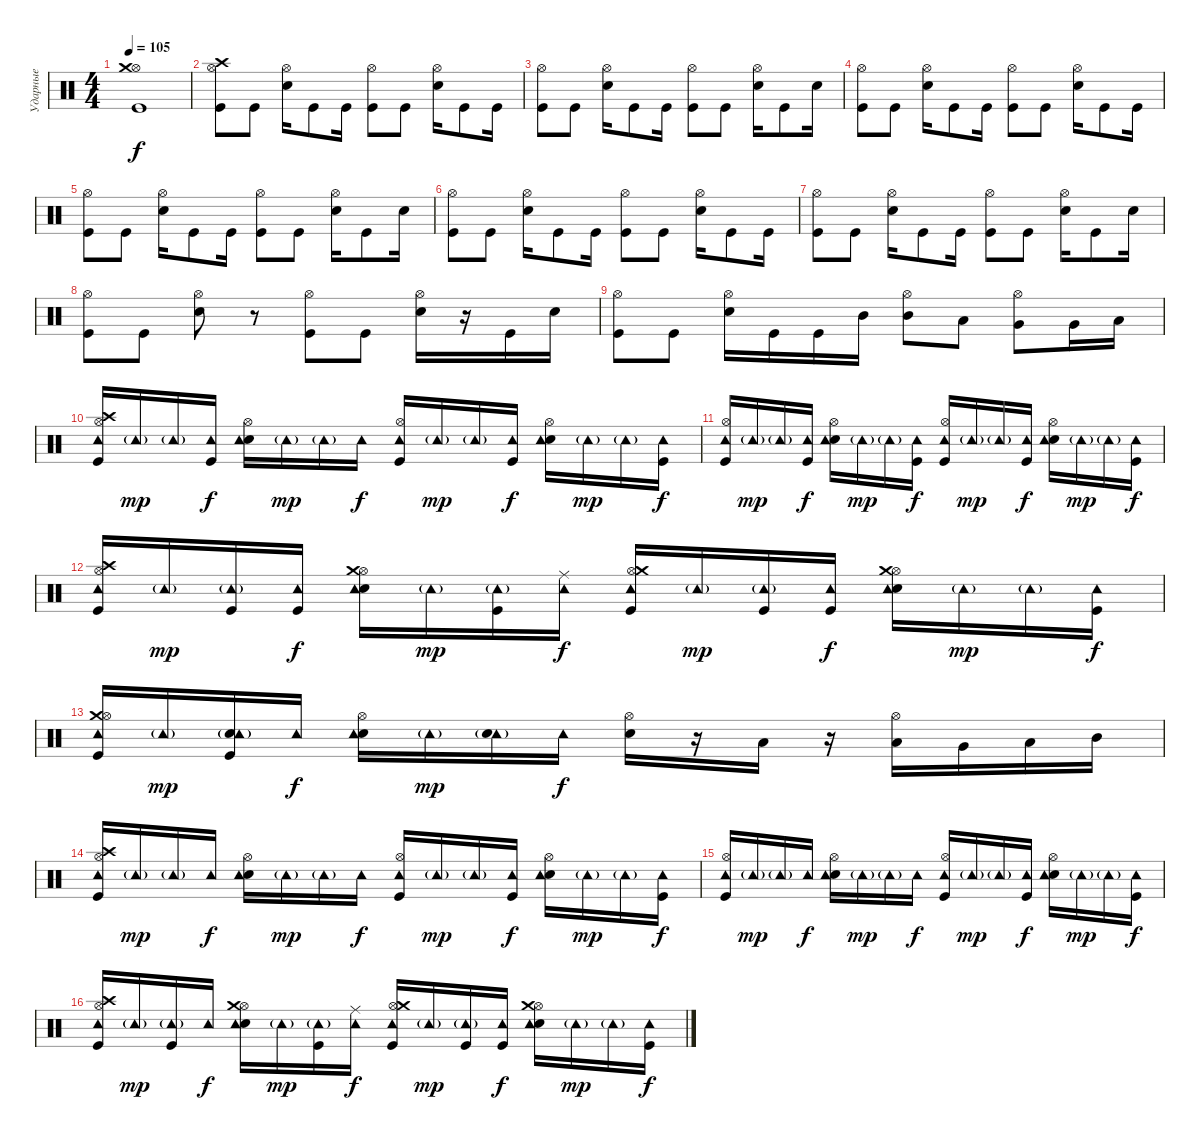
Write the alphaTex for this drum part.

\track ("Ударные" "Ударные") {instrument percussion}
\staff {score}
\articulation defaults
\ts (4 4)
\tempo 105
\clef neutral
\ks c
("Kick (hit)" "Hi-Hat (open)" "Crash medium (hit)").1{dy f} |
("Crash high (hit)" "Kick (hit)" "Hi-Hat (open)").8 "Kick (hit)".8 ("Electric Snare (hit)" "Hi-Hat (open)").16 "Kick (hit)".8 "Kick (hit)".16 ("Kick (hit)" "Hi-Hat (open)").8 "Kick (hit)".8 ("Electric Snare (hit)" "Hi-Hat (open)").16 "Kick (hit)".8 "Kick (hit)".16 |
("Kick (hit)" "Hi-Hat (open)").8 "Kick (hit)".8 ("Electric Snare (hit)" "Hi-Hat (open)").16 "Kick (hit)".8 "Kick (hit)".16 ("Kick (hit)" "Hi-Hat (open)").8 "Kick (hit)".8 ("Electric Snare (hit)" "Hi-Hat (open)").16 "Kick (hit)".8 "Electric Snare (hit)".16 |
("Kick (hit)" "Hi-Hat (open)").8 "Kick (hit)".8 ("Electric Snare (hit)" "Hi-Hat (open)").16 "Kick (hit)".8 "Kick (hit)".16 ("Kick (hit)" "Hi-Hat (open)").8 "Kick (hit)".8 ("Electric Snare (hit)" "Hi-Hat (open)").16 "Kick (hit)".8 "Kick (hit)".16 |
("Kick (hit)" "Hi-Hat (open)").8 "Kick (hit)".8 ("Electric Snare (hit)" "Hi-Hat (open)").16 "Kick (hit)".8 "Kick (hit)".16 ("Kick (hit)" "Hi-Hat (open)").8 "Kick (hit)".8 ("Electric Snare (hit)" "Hi-Hat (open)").16 "Kick (hit)".8 "Electric Snare (hit)".16 |
("Kick (hit)" "Hi-Hat (open)").8 "Kick (hit)".8 ("Electric Snare (hit)" "Hi-Hat (open)").16 "Kick (hit)".8 "Kick (hit)".16 ("Kick (hit)" "Hi-Hat (open)").8 "Kick (hit)".8 ("Electric Snare (hit)" "Hi-Hat (open)").16 "Kick (hit)".8 "Kick (hit)".16 |
("Kick (hit)" "Hi-Hat (open)").8 "Kick (hit)".8 ("Electric Snare (hit)" "Hi-Hat (open)").16 "Kick (hit)".8 "Kick (hit)".16 ("Kick (hit)" "Hi-Hat (open)").8 "Kick (hit)".8 ("Electric Snare (hit)" "Hi-Hat (open)").16 "Kick (hit)".8 "Electric Snare (hit)".16 |
("Kick (hit)" "Hi-Hat (open)").8 "Kick (hit)".8 ("Electric Snare (hit)" "Hi-Hat (open)").8 r.8 ("Kick (hit)" "Hi-Hat (open)").8 "Kick (hit)".8 ("Electric Snare (hit)" "Hi-Hat (open)").16 r.16 "Kick (hit)".16 "Electric Snare (hit)".16 |
("Kick (hit)" "Hi-Hat (open)").8 "Kick (hit)".8 ("Electric Snare (hit)" "Hi-Hat (open)").16 "Kick (hit)".16 "Kick (hit)".16 "Mid Tom (hit)".16 ("Mid Tom (hit)" "Hi-Hat (open)").8 "Low Tom (hit)".8 ("Very Low Tom (hit)" "Hi-Hat (open)").8 "Very Low Tom (hit)".16 "Low Floor Tom (hit)".16 |
("Kick (hit)" "Crash high (hit)" "Hi-Hat (open)" "Tambourine (hit)").16 "Tambourine (hit)"{g}.16{dy mp} "Tambourine (hit)"{g}.16 ("Kick (hit)" "Tambourine (hit)").16{dy f} ("Electric Snare (hit)" "Hi-Hat (open)" "Tambourine (hit)").16 "Tambourine (hit)"{g}.16{dy mp} "Tambourine (hit)"{g}.16 "Tambourine (hit)".16{dy f} ("Kick (hit)" "Hi-Hat (open)" "Tambourine (hit)").16 "Tambourine (hit)"{g}.16{dy mp} "Tambourine (hit)"{g}.16 ("Kick (hit)" "Tambourine (hit)").16{dy f} ("Electric Snare (hit)" "Hi-Hat (open)" "Tambourine (hit)").16 "Tambourine (hit)"{g}.16{dy mp} "Tambourine (hit)"{g}.16 ("Kick (hit)" "Tambourine (hit)").16{dy f} |
("Kick (hit)" "Hi-Hat (open)" "Tambourine (hit)").16 "Tambourine (hit)"{g}.16{dy mp} "Tambourine (hit)"{g}.16 ("Kick (hit)" "Tambourine (hit)").16{dy f} ("Electric Snare (hit)" "Hi-Hat (open)" "Tambourine (hit)").16 "Tambourine (hit)"{g}.16{dy mp} "Tambourine (hit)"{g}.16 ("Kick (hit)" "Tambourine (hit)").16{dy f} ("Kick (hit)" "Hi-Hat (open)" "Tambourine (hit)").16 "Tambourine (hit)"{g}.16{dy mp} "Tambourine (hit)"{g}.16 ("Kick (hit)" "Tambourine (hit)").16{dy f} ("Electric Snare (hit)" "Hi-Hat (open)" "Tambourine (hit)").16 "Tambourine (hit)"{g}.16{dy mp} "Tambourine (hit)"{g}.16 ("Kick (hit)" "Tambourine (hit)").16{dy f} |
("Kick (hit)" "Crash high (hit)" "Hi-Hat (open)" "Tambourine (hit)").16 "Tambourine (hit)"{g}.16{dy mp} ("Kick (hit)" "Tambourine (hit)"{g}).16 ("Kick (hit)" "Tambourine (hit)").16{dy f} ("Electric Snare (hit)" "Hi-Hat (open)" "Crash medium (hit)" "Tambourine (hit)").16 "Tambourine (hit)"{g}.16{dy mp} ("Kick (hit)" "Tambourine (hit)"{g}).16 ("Ride (middle)" "Tambourine (hit)").16{dy f} ("Kick (hit)" "Hi-Hat (open)" "Crash medium (hit)" "Tambourine (hit)").16 "Tambourine (hit)"{g}.16{dy mp} ("Kick (hit)" "Tambourine (hit)"{g}).16 ("Kick (hit)" "Tambourine (hit)").16{dy f} ("Electric Snare (hit)" "Hi-Hat (open)" "Crash medium (hit)" "Tambourine (hit)").16 "Tambourine (hit)"{g}.16{dy mp} "Tambourine (hit)"{g}.16 ("Kick (hit)" "Tambourine (hit)").16{dy f} |
("Kick (hit)" "Crash medium (hit)" "Hi-Hat (open)" "Tambourine (hit)").16 "Tambourine (hit)"{g}.16{dy mp} ("Kick (hit)" "Electric Snare (hit)" "Tambourine (hit)"{g}).16 "Tambourine (hit)".16{dy f} ("Electric Snare (hit)" "Hi-Hat (open)" "Tambourine (hit)").16 "Tambourine (hit)"{g}.16{dy mp} ("Tambourine (hit)"{g} "Electric Snare (hit)").16 "Tambourine (hit)".16{dy f} ("Electric Snare (hit)" "Hi-Hat (open)").16 r.16 "Low Floor Tom (hit)".16 r.16 ("Low Floor Tom (hit)" "Hi-Hat (open)").16 "Very Low Tom (hit)".16 "Low Tom (hit)".16 "Mid Tom (hit)".16 |
("Kick (hit)" "Crash high (hit)" "Hi-Hat (open)" "Tambourine (hit)").16 "Tambourine (hit)"{g}.16{dy mp} "Tambourine (hit)"{g}.16 "Tambourine (hit)".16{dy f} ("Electric Snare (hit)" "Hi-Hat (open)" "Tambourine (hit)").16 "Tambourine (hit)"{g}.16{dy mp} "Tambourine (hit)"{g}.16 "Tambourine (hit)".16{dy f} ("Kick (hit)" "Hi-Hat (open)" "Tambourine (hit)").16 "Tambourine (hit)"{g}.16{dy mp} "Tambourine (hit)"{g}.16 ("Kick (hit)" "Tambourine (hit)").16{dy f} ("Electric Snare (hit)" "Hi-Hat (open)" "Tambourine (hit)").16 "Tambourine (hit)"{g}.16{dy mp} "Tambourine (hit)"{g}.16 ("Kick (hit)" "Tambourine (hit)").16{dy f} |
("Kick (hit)" "Hi-Hat (open)" "Tambourine (hit)").16 "Tambourine (hit)"{g}.16{dy mp} "Tambourine (hit)"{g}.16 "Tambourine (hit)".16{dy f} ("Electric Snare (hit)" "Hi-Hat (open)" "Tambourine (hit)").16 "Tambourine (hit)"{g}.16{dy mp} "Tambourine (hit)"{g}.16 "Tambourine (hit)".16{dy f} ("Kick (hit)" "Hi-Hat (open)" "Tambourine (hit)").16 "Tambourine (hit)"{g}.16{dy mp} "Tambourine (hit)"{g}.16 ("Kick (hit)" "Tambourine (hit)").16{dy f} ("Electric Snare (hit)" "Hi-Hat (open)" "Tambourine (hit)").16 "Tambourine (hit)"{g}.16{dy mp} "Tambourine (hit)"{g}.16 ("Kick (hit)" "Tambourine (hit)").16{dy f} |
("Kick (hit)" "Crash high (hit)" "Hi-Hat (open)" "Tambourine (hit)").16 "Tambourine (hit)"{g}.16{dy mp} ("Kick (hit)" "Tambourine (hit)"{g}).16 "Tambourine (hit)".16{dy f} ("Electric Snare (hit)" "Hi-Hat (open)" "Crash medium (hit)" "Tambourine (hit)").16 "Tambourine (hit)"{g}.16{dy mp} ("Kick (hit)" "Tambourine (hit)"{g}).16 ("Ride (middle)" "Tambourine (hit)").16{dy f} ("Kick (hit)" "Hi-Hat (open)" "Crash medium (hit)" "Tambourine (hit)").16 "Tambourine (hit)"{g}.16{dy mp} ("Kick (hit)" "Tambourine (hit)"{g}).16 ("Kick (hit)" "Tambourine (hit)").16{dy f} ("Electric Snare (hit)" "Hi-Hat (open)" "Crash medium (hit)" "Tambourine (hit)").16 "Tambourine (hit)"{g}.16{dy mp} "Tambourine (hit)"{g}.16 ("Kick (hit)" "Tambourine (hit)").16{dy f}
